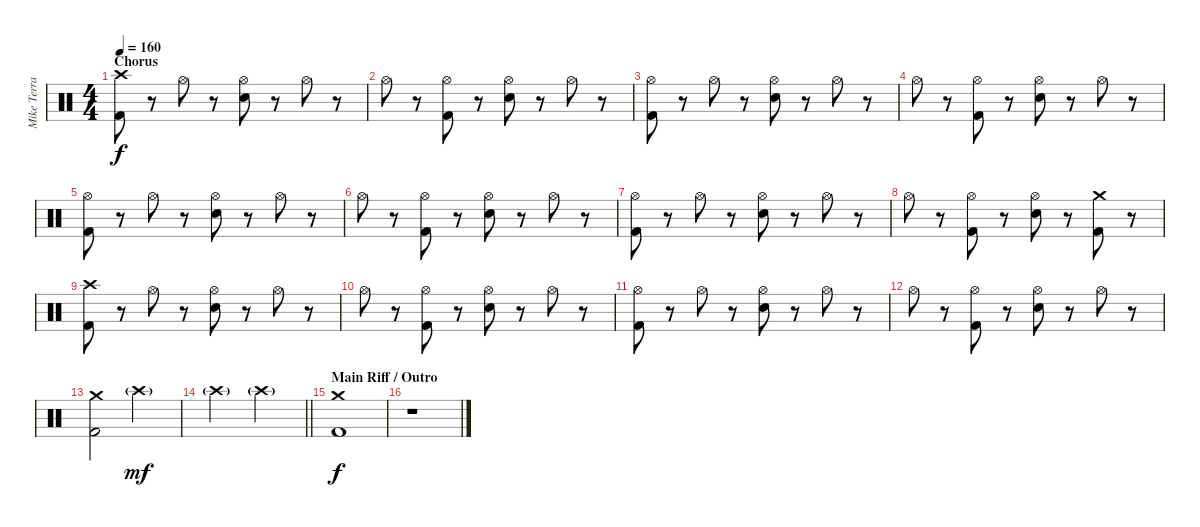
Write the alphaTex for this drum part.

\track ("Mike Terrana" "Mike Terra") {instrument percussion}
\staff {score}
\articulation defaults
\ts (4 4)
\section ("" "Chorus")
\tempo 160
\clef neutral
\ks c
("Crash high (hit)" "Kick (hit) 2").8{dy f} r.8 "Hi-Hat (open)".8 r.8 ("Hi-Hat (open)" "Snare (hit) 2").8 r.8 "Hi-Hat (open)".8 r.8 |
"Hi-Hat (open)".8 r.8 ("Hi-Hat (open)" "Kick (hit) 2").8 r.8 ("Hi-Hat (open)" "Snare (hit) 2").8 r.8 "Hi-Hat (open)".8 r.8 |
("Hi-Hat (open)" "Kick (hit) 2").8 r.8 "Hi-Hat (open)".8 r.8 ("Hi-Hat (open)" "Snare (hit) 2").8 r.8 "Hi-Hat (open)".8 r.8 |
"Hi-Hat (open)".8 r.8 ("Hi-Hat (open)" "Kick (hit) 2").8 r.8 ("Hi-Hat (open)" "Snare (hit) 2").8 r.8 "Hi-Hat (open)".8 r.8 |
("Hi-Hat (open)" "Kick (hit) 2").8 r.8 "Hi-Hat (open)".8 r.8 ("Hi-Hat (open)" "Snare (hit) 2").8 r.8 "Hi-Hat (open)".8 r.8 |
"Hi-Hat (open)".8 r.8 ("Hi-Hat (open)" "Kick (hit) 2").8 r.8 ("Hi-Hat (open)" "Snare (hit) 2").8 r.8 "Hi-Hat (open)".8 r.8 |
("Hi-Hat (open)" "Kick (hit) 2").8 r.8 "Hi-Hat (open)".8 r.8 ("Hi-Hat (open)" "Snare (hit) 2").8 r.8 "Hi-Hat (open)".8 r.8 |
"Hi-Hat (open)".8 r.8 ("Hi-Hat (open)" "Kick (hit) 2").8 r.8 ("Hi-Hat (open)" "Snare (hit) 2").8 r.8 ("Crash medium (hit)" "Kick (hit) 2").8 r.8 |
("Crash high (hit)" "Kick (hit) 2").8 r.8 "Hi-Hat (open)".8 r.8 ("Hi-Hat (open)" "Snare (hit) 2").8 r.8 "Hi-Hat (open)".8 r.8 |
"Hi-Hat (open)".8 r.8 ("Hi-Hat (open)" "Kick (hit) 2").8 r.8 ("Hi-Hat (open)" "Snare (hit) 2").8 r.8 "Hi-Hat (open)".8 r.8 |
("Hi-Hat (open)" "Kick (hit) 2").8 r.8 "Hi-Hat (open)".8 r.8 ("Hi-Hat (open)" "Snare (hit) 2").8 r.8 "Hi-Hat (open)".8 r.8 |
"Hi-Hat (open)".8 r.8 ("Hi-Hat (open)" "Kick (hit) 2").8 r.8 ("Hi-Hat (open)" "Snare (hit) 2").8 r.8 "Hi-Hat (open)".8 r.8 |
("Crash medium (hit)" "Kick (hit) 2").2 "Crash high (hit)"{g}.2{dy mf} |
\barLineRight lightlight "Crash high (hit)"{g}.2 "Crash high (hit)"{g}.2
|
\section ("" "Main Riff / Outro")
("Crash medium (hit)" "Kick (hit) 2").1{dy f} |
r.1
